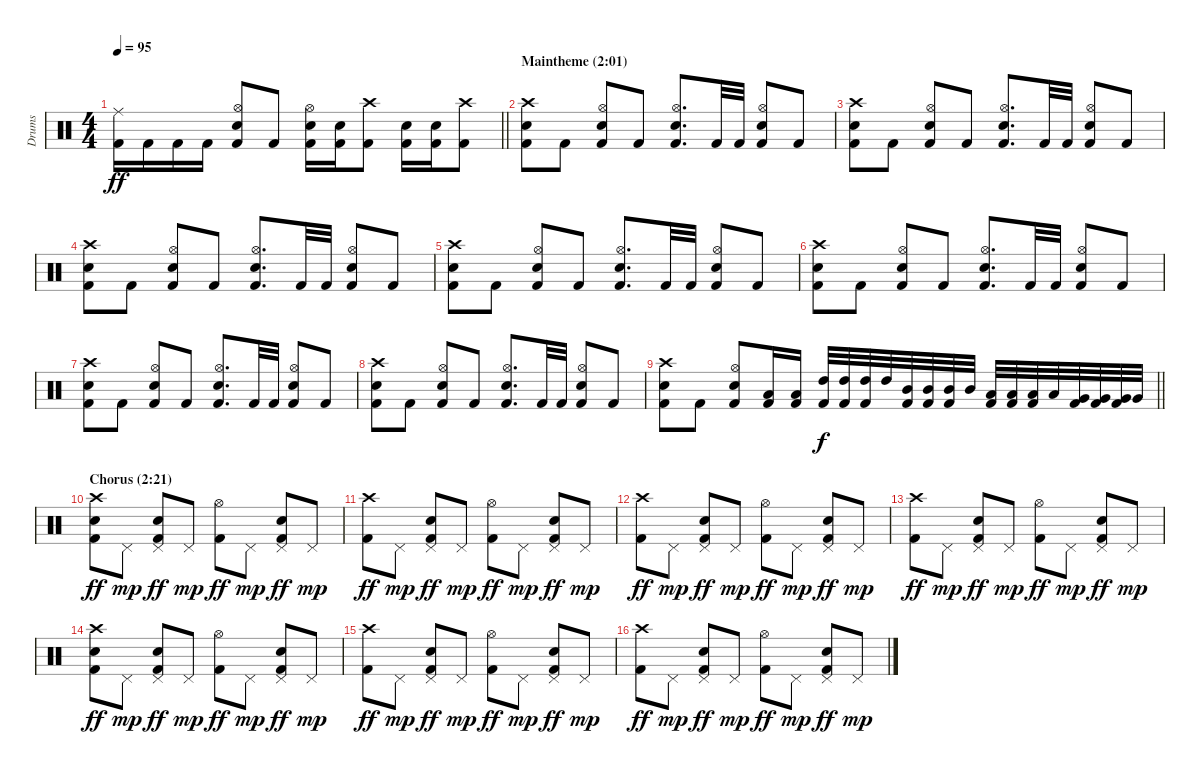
\track ("Drums" "Drums") {instrument percussion}
\staff {score}
\articulation defaults
\ts (4 4)
\tempo 95
\clef neutral
\barLineRight lightlight
\ks c
("Ride (middle)" "Kick (hit) 2").16{dy ff} "Kick (hit) 2".16 "Kick (hit) 2".16 "Kick (hit) 2".16 ("Hi-Hat (open)" "Snare (hit) 2" "Kick (hit) 2").8 "Kick (hit) 2".8 ("Hi-Hat (open)" "Snare (hit) 2" "Kick (hit) 2").16 ("Snare (hit) 2" "Kick (hit) 2").16 ("Crash high (hit)" "Kick (hit) 2").8 ("Snare (hit) 2" "Kick (hit) 2").16 ("Snare (hit) 2" "Kick (hit) 2").16 ("Crash high (hit)" "Kick (hit) 2").8 |
\section ("" "Maintheme (2:01)")
("Crash high (hit)" "Snare (hit) 2" "Kick (hit) 2").8 "Kick (hit) 2".8 ("Hi-Hat (open)" "Snare (hit) 2" "Kick (hit) 2").8 "Kick (hit) 2".8 ("Hi-Hat (open)" "Snare (hit) 2" "Kick (hit) 2").8{d} "Kick (hit) 2".32 "Kick (hit) 2".32 ("Hi-Hat (open)" "Snare (hit) 2" "Kick (hit) 2").8 "Kick (hit) 2".8 |
("Crash high (hit)" "Snare (hit) 2" "Kick (hit) 2").8 "Kick (hit) 2".8 ("Hi-Hat (open)" "Snare (hit) 2" "Kick (hit) 2").8 "Kick (hit) 2".8 ("Hi-Hat (open)" "Snare (hit) 2" "Kick (hit) 2").8{d} "Kick (hit) 2".32 "Kick (hit) 2".32 ("Hi-Hat (open)" "Snare (hit) 2" "Kick (hit) 2").8 "Kick (hit) 2".8 |
("Crash high (hit)" "Snare (hit) 2" "Kick (hit) 2").8 "Kick (hit) 2".8 ("Hi-Hat (open)" "Snare (hit) 2" "Kick (hit) 2").8 "Kick (hit) 2".8 ("Hi-Hat (open)" "Snare (hit) 2" "Kick (hit) 2").8{d} "Kick (hit) 2".32 "Kick (hit) 2".32 ("Hi-Hat (open)" "Snare (hit) 2" "Kick (hit) 2").8 "Kick (hit) 2".8 |
("Crash high (hit)" "Snare (hit) 2" "Kick (hit) 2").8 "Kick (hit) 2".8 ("Hi-Hat (open)" "Snare (hit) 2" "Kick (hit) 2").8 "Kick (hit) 2".8 ("Hi-Hat (open)" "Snare (hit) 2" "Kick (hit) 2").8{d} "Kick (hit) 2".32 "Kick (hit) 2".32 ("Hi-Hat (open)" "Snare (hit) 2" "Kick (hit) 2").8 "Kick (hit) 2".8 |
("Crash high (hit)" "Snare (hit) 2" "Kick (hit) 2").8 "Kick (hit) 2".8 ("Hi-Hat (open)" "Snare (hit) 2" "Kick (hit) 2").8 "Kick (hit) 2".8 ("Hi-Hat (open)" "Snare (hit) 2" "Kick (hit) 2").8{d} "Kick (hit) 2".32 "Kick (hit) 2".32 ("Hi-Hat (open)" "Snare (hit) 2" "Kick (hit) 2").8 "Kick (hit) 2".8 |
("Crash high (hit)" "Snare (hit) 2" "Kick (hit) 2").8 "Kick (hit) 2".8 ("Hi-Hat (open)" "Snare (hit) 2" "Kick (hit) 2").8 "Kick (hit) 2".8 ("Hi-Hat (open)" "Snare (hit) 2" "Kick (hit) 2").8{d} "Kick (hit) 2".32 "Kick (hit) 2".32 ("Hi-Hat (open)" "Snare (hit) 2" "Kick (hit) 2").8 "Kick (hit) 2".8 |
("Crash high (hit)" "Snare (hit) 2" "Kick (hit) 2").8 "Kick (hit) 2".8 ("Hi-Hat (open)" "Snare (hit) 2" "Kick (hit) 2").8 "Kick (hit) 2".8 ("Hi-Hat (open)" "Snare (hit) 2" "Kick (hit) 2").8{d} "Kick (hit) 2".32 "Kick (hit) 2".32 ("Hi-Hat (open)" "Snare (hit) 2" "Kick (hit) 2").8 "Kick (hit) 2".8 |
\barLineRight lightlight
("Crash high (hit)" "Snare (hit) 2" "Kick (hit) 2").8 "Kick (hit) 2".8 ("Hi-Hat (open)" "Snare (hit) 2" "Kick (hit) 2").8 ("Low Tom (hit)" "Kick (hit) 2").16 ("Low Tom (hit)" "Kick (hit) 2").16 ("High Tom (hit)" "Kick (hit) 2").32{dy f} ("High Tom (hit)" "Kick (hit) 2").32 ("High Tom (hit)" "Kick (hit) 2").32 "High Tom (hit)".32 ("Mid Tom (hit)" "Kick (hit) 2").32 ("Mid Tom (hit)" "Kick (hit) 2").32 ("Mid Tom (hit)" "Kick (hit) 2").32 "Mid Tom (hit)".32 ("Low Tom (hit)" "Kick (hit) 2").32 ("Low Tom (hit)" "Kick (hit) 2").32 ("Low Tom (hit)" "Kick (hit) 2").32 "Low Tom (hit)".32 ("Very Low Tom (hit)" "Kick (hit) 2").32 ("Very Low Tom (hit)" "Kick (hit) 2").32 ("Very Low Tom (hit)" "Kick (hit) 2").32 "Very Low Tom (hit)".32 |
\section ("" "Chorus (2:21)")
("Crash high (hit)" "Snare (hit) 2" "Kick (hit) 2").8{dy ff} "Pedal Hi-Hat (hit)".8{dy mp} ("Pedal Hi-Hat (hit)" "Snare (hit) 2" "Kick (hit) 2").8{dy ff} "Pedal Hi-Hat (hit)".8{dy mp} ("Hi-Hat (open)" "Kick (hit) 2").8{dy ff} "Pedal Hi-Hat (hit)".8{dy mp} ("Pedal Hi-Hat (hit)" "Snare (hit) 2" "Kick (hit) 2").8{dy ff} "Pedal Hi-Hat (hit)".8{dy mp} |
("Crash high (hit)" "Kick (hit) 2").8{dy ff} "Pedal Hi-Hat (hit)".8{dy mp} ("Pedal Hi-Hat (hit)" "Snare (hit) 2" "Kick (hit) 2").8{dy ff} "Pedal Hi-Hat (hit)".8{dy mp} ("Hi-Hat (open)" "Kick (hit) 2").8{dy ff} "Pedal Hi-Hat (hit)".8{dy mp} ("Pedal Hi-Hat (hit)" "Snare (hit) 2" "Kick (hit) 2").8{dy ff} "Pedal Hi-Hat (hit)".8{dy mp} |
("Crash high (hit)" "Kick (hit) 2").8{dy ff} "Pedal Hi-Hat (hit)".8{dy mp} ("Pedal Hi-Hat (hit)" "Snare (hit) 2" "Kick (hit) 2").8{dy ff} "Pedal Hi-Hat (hit)".8{dy mp} ("Hi-Hat (open)" "Kick (hit) 2").8{dy ff} "Pedal Hi-Hat (hit)".8{dy mp} ("Pedal Hi-Hat (hit)" "Snare (hit) 2" "Kick (hit) 2").8{dy ff} "Pedal Hi-Hat (hit)".8{dy mp} |
("Crash high (hit)" "Kick (hit) 2").8{dy ff} "Pedal Hi-Hat (hit)".8{dy mp} ("Pedal Hi-Hat (hit)" "Snare (hit) 2" "Kick (hit) 2").8{dy ff} "Pedal Hi-Hat (hit)".8{dy mp} ("Hi-Hat (open)" "Kick (hit) 2").8{dy ff} "Pedal Hi-Hat (hit)".8{dy mp} ("Pedal Hi-Hat (hit)" "Snare (hit) 2" "Kick (hit) 2").8{dy ff} "Pedal Hi-Hat (hit)".8{dy mp} |
("Crash high (hit)" "Snare (hit) 2" "Kick (hit) 2").8{dy ff} "Pedal Hi-Hat (hit)".8{dy mp} ("Pedal Hi-Hat (hit)" "Snare (hit) 2" "Kick (hit) 2").8{dy ff} "Pedal Hi-Hat (hit)".8{dy mp} ("Hi-Hat (open)" "Kick (hit) 2").8{dy ff} "Pedal Hi-Hat (hit)".8{dy mp} ("Pedal Hi-Hat (hit)" "Snare (hit) 2" "Kick (hit) 2").8{dy ff} "Pedal Hi-Hat (hit)".8{dy mp} |
("Crash high (hit)" "Kick (hit) 2").8{dy ff} "Pedal Hi-Hat (hit)".8{dy mp} ("Pedal Hi-Hat (hit)" "Snare (hit) 2" "Kick (hit) 2").8{dy ff} "Pedal Hi-Hat (hit)".8{dy mp} ("Hi-Hat (open)" "Kick (hit) 2").8{dy ff} "Pedal Hi-Hat (hit)".8{dy mp} ("Pedal Hi-Hat (hit)" "Snare (hit) 2" "Kick (hit) 2").8{dy ff} "Pedal Hi-Hat (hit)".8{dy mp} |
("Crash high (hit)" "Kick (hit) 2").8{dy ff} "Pedal Hi-Hat (hit)".8{dy mp} ("Pedal Hi-Hat (hit)" "Snare (hit) 2" "Kick (hit) 2").8{dy ff} "Pedal Hi-Hat (hit)".8{dy mp} ("Hi-Hat (open)" "Kick (hit) 2").8{dy ff} "Pedal Hi-Hat (hit)".8{dy mp} ("Pedal Hi-Hat (hit)" "Snare (hit) 2" "Kick (hit) 2").8{dy ff} "Pedal Hi-Hat (hit)".8{dy mp}
